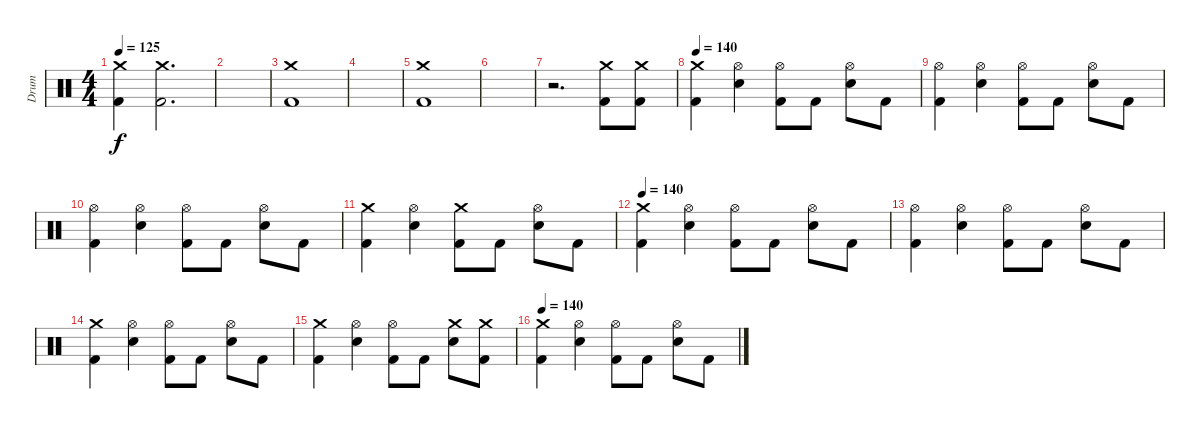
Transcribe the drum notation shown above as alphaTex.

\track ("Drum" "Drum") {instrument percussion}
\staff
\articulation defaults
\ts (4 4)
\tempo 125
\clef neutral
\ks c
("Crash medium (hit)" "Kick (hit) 2").4{dy f} ("Crash medium (hit)" "Kick (hit) 2").2{d} |
|
("Crash medium (hit)" "Kick (hit) 2").1 |
|
("Crash medium (hit)" "Kick (hit) 2").1 |
|
r.2{d} ("Crash medium (hit)" "Kick (hit) 2").8 ("Crash medium (hit)" "Kick (hit) 2").8 |
\tempo 140
("Crash medium (hit)" "Kick (hit) 2").4 ("Hi-Hat (open)" "Electric Snare (hit)").4 ("Hi-Hat (open)" "Kick (hit) 2").8 "Kick (hit) 2".8 ("Hi-Hat (open)" "Electric Snare (hit)").8 "Kick (hit) 2".8 |
("Hi-Hat (open)" "Kick (hit) 2").4 ("Hi-Hat (open)" "Electric Snare (hit)").4 ("Hi-Hat (open)" "Kick (hit) 2").8 "Kick (hit) 2".8 ("Hi-Hat (open)" "Electric Snare (hit)").8 "Kick (hit) 2".8 |
("Hi-Hat (open)" "Kick (hit) 2").4 ("Hi-Hat (open)" "Electric Snare (hit)").4 ("Hi-Hat (open)" "Kick (hit) 2").8 "Kick (hit) 2".8 ("Hi-Hat (open)" "Electric Snare (hit)").8 "Kick (hit) 2".8 |
("Crash medium (hit)" "Kick (hit) 2").4 ("Hi-Hat (open)" "Electric Snare (hit)").4 ("Crash medium (hit)" "Kick (hit) 2").8 "Kick (hit) 2".8 ("Hi-Hat (open)" "Electric Snare (hit)").8 "Kick (hit) 2".8 |
\tempo 140
("Crash medium (hit)" "Kick (hit) 2").4 ("Hi-Hat (open)" "Electric Snare (hit)").4 ("Hi-Hat (open)" "Kick (hit) 2").8 "Kick (hit) 2".8 ("Hi-Hat (open)" "Electric Snare (hit)").8 "Kick (hit) 2".8 |
("Hi-Hat (open)" "Kick (hit) 2").4 ("Hi-Hat (open)" "Electric Snare (hit)").4 ("Hi-Hat (open)" "Kick (hit) 2").8 "Kick (hit) 2".8 ("Hi-Hat (open)" "Electric Snare (hit)").8 "Kick (hit) 2".8 |
("Crash medium (hit)" "Kick (hit) 2").4 ("Hi-Hat (open)" "Electric Snare (hit)").4 ("Hi-Hat (open)" "Kick (hit) 2").8 "Kick (hit) 2".8 ("Hi-Hat (open)" "Electric Snare (hit)").8 "Kick (hit) 2".8 |
("Crash medium (hit)" "Kick (hit) 2").4 ("Hi-Hat (open)" "Electric Snare (hit)").4 ("Hi-Hat (open)" "Kick (hit) 2").8 "Kick (hit) 2".8 ("Crash medium (hit)" "Electric Snare (hit)").8 ("Crash medium (hit)" "Kick (hit) 2").8 |
\tempo 140
("Crash medium (hit)" "Kick (hit) 2").4 ("Hi-Hat (open)" "Electric Snare (hit)").4 ("Hi-Hat (open)" "Kick (hit) 2").8 "Kick (hit) 2".8 ("Hi-Hat (open)" "Electric Snare (hit)").8 "Kick (hit) 2".8
